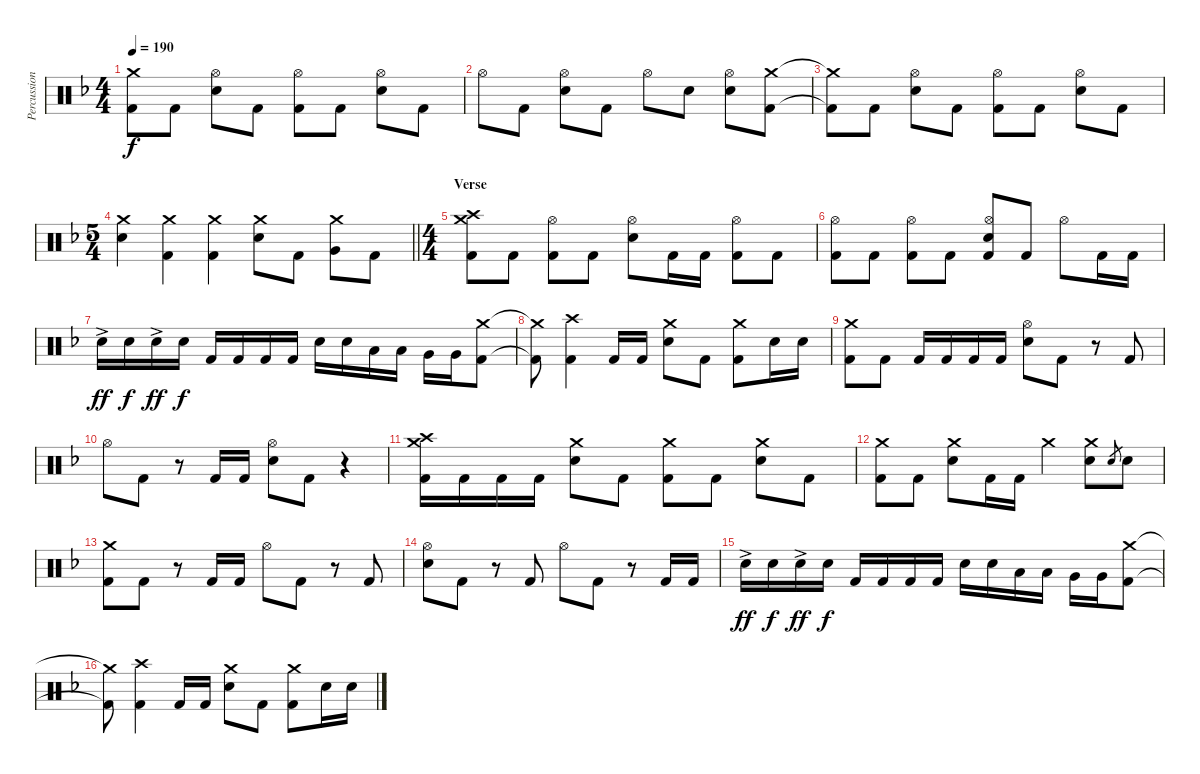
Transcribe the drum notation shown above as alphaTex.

\track ("Percussion" "Percussion") {instrument percussion}
\staff {score}
\articulation defaults
\ts (4 4)
\tempo 190
\clef neutral
\ks f
("Crash medium (hit)"{t} "Kick (hit) 2"{t}).8{dy f} "Kick (hit) 2".8 ("Hi-Hat (open)" "Electric Snare (hit)").8 "Kick (hit) 2".8 ("Hi-Hat (open)" "Kick (hit) 2").8 "Kick (hit) 2".8 ("Hi-Hat (open)" "Electric Snare (hit)").8 "Kick (hit) 2".8 |
"Hi-Hat (open)".8 "Kick (hit) 2".8 ("Hi-Hat (open)" "Electric Snare (hit)").8 "Kick (hit) 2".8 "Hi-Hat (open)".8 "Electric Snare (hit)".8 ("Hi-Hat (open)" "Electric Snare (hit)").8 ("Crash medium (hit)" "Kick (hit) 2").8 |
("Crash medium (hit)"{t} "Kick (hit) 2"{t}).8 "Kick (hit) 2".8 ("Hi-Hat (open)" "Electric Snare (hit)").8 "Kick (hit) 2".8 ("Hi-Hat (open)" "Kick (hit) 2").8 "Kick (hit) 2".8 ("Hi-Hat (open)" "Electric Snare (hit)").8 "Kick (hit) 2".8 |
\ts (5 4)
\barLineRight lightlight
("Crash medium (hit)" "Electric Snare (hit)").4 ("Crash medium (hit)" "Kick (hit) 2").4 ("Crash medium (hit)" "Kick (hit) 2").4 ("Crash medium (hit)" "Electric Snare (hit)").8 "Kick (hit) 2".8 ("Crash medium (hit)" "Very Low Tom (hit)").8 "Kick (hit) 2".8 |
\ts (4 4)
\section ("" "Verse")
("Crash medium (hit)" "Crash high (hit)" "Kick (hit) 2").8 "Kick (hit) 2".8 ("Hi-Hat (open)" "Kick (hit) 2").8 "Kick (hit) 2".8 ("Hi-Hat (open)" "Electric Snare (hit)").8 "Kick (hit) 2".16 "Kick (hit) 2".16 ("Hi-Hat (open)" "Kick (hit) 2").8 "Kick (hit) 2".8 |
("Hi-Hat (open)" "Kick (hit) 2").8 "Kick (hit) 2".8 ("Hi-Hat (open)" "Kick (hit) 2").8 "Kick (hit) 2".8 ("Hi-Hat (open)" "Electric Snare (hit)" "Kick (hit) 2").8 "Kick (hit) 2".8 "Hi-Hat (open)".8 "Kick (hit) 2".16 "Kick (hit) 2".16 |
"Electric Snare (hit)"{ac}.16{dy ff} "Electric Snare (hit)".16{dy f} "Electric Snare (hit)"{ac}.16{dy ff} "Electric Snare (hit)".16{dy f} "Kick (hit) 2".16 "Kick (hit) 2".16 "Kick (hit) 2".16 "Kick (hit) 2".16 "Electric Snare (hit)".16 "Electric Snare (hit)".16 "Low Tom (hit)".16 "Low Tom (hit)".16 "Very Low Tom (hit)".16 "Very Low Tom (hit)".16 ("Crash medium (hit)" "Kick (hit) 2").8 |
("Crash medium (hit)"{t} "Kick (hit) 2"{t}).8 ("Crash high (hit)" "Kick (hit) 2").4 "Kick (hit) 2".16 "Kick (hit) 2".16 ("Crash medium (hit)" "Electric Snare (hit)").8 "Kick (hit) 2".8 ("Crash medium (hit)" "Kick (hit) 2").8 "Electric Snare (hit)".16 "Electric Snare (hit)".16 |
("Crash medium (hit)" "Kick (hit) 2").8 "Kick (hit) 2".8 "Kick (hit) 2".16 "Kick (hit) 2".16 "Kick (hit) 2".16 "Kick (hit) 2".16 ("Hi-Hat (open)" "Electric Snare (hit)").8 "Kick (hit) 2".8 r.8 "Kick (hit) 2".8 |
"Hi-Hat (open)".8 "Kick (hit) 2".8 r.8 "Kick (hit) 2".16 "Kick (hit) 2".16 ("Hi-Hat (open)" "Electric Snare (hit)").8 "Kick (hit) 2".8 r.4 |
("Crash medium (hit)" "Crash high (hit)" "Kick (hit) 2").16 "Kick (hit) 2".16 "Kick (hit) 2".16 "Kick (hit) 2".16 ("Crash medium (hit)" "Electric Snare (hit)").8 "Kick (hit) 2".8 ("Crash medium (hit)" "Kick (hit) 2").8 "Kick (hit) 2".8 ("Crash medium (hit)" "Electric Snare (hit)").8 "Kick (hit) 2".8 |
("Crash medium (hit)" "Kick (hit) 2").8 "Kick (hit) 2".8 ("Crash medium (hit)" "Electric Snare (hit)").8 "Kick (hit) 2".16 "Kick (hit) 2".16 "Crash medium (hit)".4 ("Crash medium (hit)" "Electric Snare (hit)").8 "Electric Snare (hit)".8{gr} "Electric Snare (hit)".8 |
("Crash medium (hit)" "Kick (hit) 2").8 "Kick (hit) 2".8 r.8 "Kick (hit) 2".16 "Kick (hit) 2".16 "Hi-Hat (open)".8 "Kick (hit) 2".8 r.8 "Kick (hit) 2".8 |
("Hi-Hat (open)" "Electric Snare (hit)").8 "Kick (hit) 2".8 r.8 "Kick (hit) 2".8 "Hi-Hat (open)".8 "Kick (hit) 2".8 r.8 "Kick (hit) 2".16 "Kick (hit) 2".16 |
"Electric Snare (hit)"{ac}.16{dy ff} "Electric Snare (hit)".16{dy f} "Electric Snare (hit)"{ac}.16{dy ff} "Electric Snare (hit)".16{dy f} "Kick (hit) 2".16 "Kick (hit) 2".16 "Kick (hit) 2".16 "Kick (hit) 2".16 "Electric Snare (hit)".16 "Electric Snare (hit)".16 "Low Tom (hit)".16 "Low Tom (hit)".16 "Very Low Tom (hit)".16 "Very Low Tom (hit)".16 ("Crash medium (hit)" "Kick (hit) 2").8 |
("Crash medium (hit)"{t} "Kick (hit) 2"{t}).8 ("Crash high (hit)" "Kick (hit) 2").4 "Kick (hit) 2".16 "Kick (hit) 2".16 ("Crash medium (hit)" "Electric Snare (hit)").8 "Kick (hit) 2".8 ("Crash medium (hit)" "Kick (hit) 2").8 "Electric Snare (hit)".16 "Electric Snare (hit)".16
